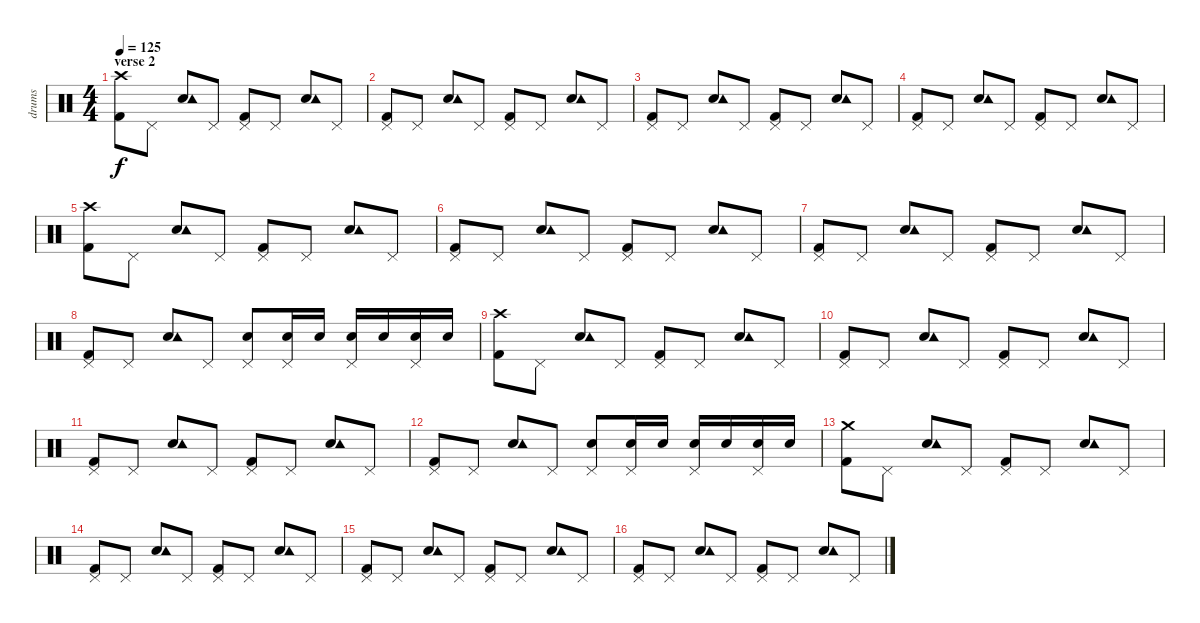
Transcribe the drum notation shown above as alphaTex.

\track ("drums" "drums") {instrument percussion}
\staff {score}
\articulation defaults
\ts (4 4)
\section ("" "verse 2")
\tempo 125
\clef neutral
\ks c
("Kick (hit) 2" "Crash high (hit)").8{dy f} "Pedal Hi-Hat (hit)".8 ("Electric Snare (hit)" "Tambourine (hit)").8 "Pedal Hi-Hat (hit)".8 ("Kick (hit) 2" "Pedal Hi-Hat (hit)").8 "Pedal Hi-Hat (hit)".8 ("Electric Snare (hit)" "Tambourine (hit)").8 "Pedal Hi-Hat (hit)".8 |
("Kick (hit) 2" "Pedal Hi-Hat (hit)").8 "Pedal Hi-Hat (hit)".8 ("Electric Snare (hit)" "Tambourine (hit)").8 "Pedal Hi-Hat (hit)".8 ("Kick (hit) 2" "Pedal Hi-Hat (hit)").8 "Pedal Hi-Hat (hit)".8 ("Electric Snare (hit)" "Tambourine (hit)").8 "Pedal Hi-Hat (hit)".8 |
("Kick (hit) 2" "Pedal Hi-Hat (hit)").8 "Pedal Hi-Hat (hit)".8 ("Electric Snare (hit)" "Tambourine (hit)").8 "Pedal Hi-Hat (hit)".8 ("Kick (hit) 2" "Pedal Hi-Hat (hit)").8 "Pedal Hi-Hat (hit)".8 ("Electric Snare (hit)" "Tambourine (hit)").8 "Pedal Hi-Hat (hit)".8 |
("Kick (hit) 2" "Pedal Hi-Hat (hit)").8 "Pedal Hi-Hat (hit)".8 ("Electric Snare (hit)" "Tambourine (hit)").8 "Pedal Hi-Hat (hit)".8 ("Kick (hit) 2" "Pedal Hi-Hat (hit)").8 "Pedal Hi-Hat (hit)".8 ("Electric Snare (hit)" "Tambourine (hit)").8 "Pedal Hi-Hat (hit)".8 |
("Kick (hit) 2" "Crash high (hit)").8 "Pedal Hi-Hat (hit)".8 ("Electric Snare (hit)" "Tambourine (hit)").8 "Pedal Hi-Hat (hit)".8 ("Kick (hit) 2" "Pedal Hi-Hat (hit)").8 "Pedal Hi-Hat (hit)".8 ("Electric Snare (hit)" "Tambourine (hit)").8 "Pedal Hi-Hat (hit)".8 |
("Kick (hit) 2" "Pedal Hi-Hat (hit)").8 "Pedal Hi-Hat (hit)".8 ("Electric Snare (hit)" "Tambourine (hit)").8 "Pedal Hi-Hat (hit)".8 ("Kick (hit) 2" "Pedal Hi-Hat (hit)").8 "Pedal Hi-Hat (hit)".8 ("Electric Snare (hit)" "Tambourine (hit)").8 "Pedal Hi-Hat (hit)".8 |
("Kick (hit) 2" "Pedal Hi-Hat (hit)").8 "Pedal Hi-Hat (hit)".8 ("Electric Snare (hit)" "Tambourine (hit)").8 "Pedal Hi-Hat (hit)".8 ("Kick (hit) 2" "Pedal Hi-Hat (hit)").8 "Pedal Hi-Hat (hit)".8 ("Electric Snare (hit)" "Tambourine (hit)").8 "Pedal Hi-Hat (hit)".8 |
("Kick (hit) 2" "Pedal Hi-Hat (hit)").8 "Pedal Hi-Hat (hit)".8 ("Electric Snare (hit)" "Tambourine (hit)").8 "Pedal Hi-Hat (hit)".8 ("Electric Snare (hit)" "Pedal Hi-Hat (hit)").8 ("Electric Snare (hit)" "Pedal Hi-Hat (hit)").16 "Electric Snare (hit)".16 ("Electric Snare (hit)" "Pedal Hi-Hat (hit)").16 "Electric Snare (hit)".16 ("Electric Snare (hit)" "Pedal Hi-Hat (hit)").16 "Electric Snare (hit)".16 |
("Kick (hit) 2" "Crash high (hit)").8 "Pedal Hi-Hat (hit)".8 ("Electric Snare (hit)" "Tambourine (hit)").8 "Pedal Hi-Hat (hit)".8 ("Kick (hit) 2" "Pedal Hi-Hat (hit)").8 "Pedal Hi-Hat (hit)".8 ("Electric Snare (hit)" "Tambourine (hit)").8 "Pedal Hi-Hat (hit)".8 |
("Kick (hit) 2" "Pedal Hi-Hat (hit)").8 "Pedal Hi-Hat (hit)".8 ("Electric Snare (hit)" "Tambourine (hit)").8 "Pedal Hi-Hat (hit)".8 ("Kick (hit) 2" "Pedal Hi-Hat (hit)").8 "Pedal Hi-Hat (hit)".8 ("Electric Snare (hit)" "Tambourine (hit)").8 "Pedal Hi-Hat (hit)".8 |
("Kick (hit) 2" "Pedal Hi-Hat (hit)").8 "Pedal Hi-Hat (hit)".8 ("Electric Snare (hit)" "Tambourine (hit)").8 "Pedal Hi-Hat (hit)".8 ("Kick (hit) 2" "Pedal Hi-Hat (hit)").8 "Pedal Hi-Hat (hit)".8 ("Electric Snare (hit)" "Tambourine (hit)").8 "Pedal Hi-Hat (hit)".8 |
("Kick (hit) 2" "Pedal Hi-Hat (hit)").8 "Pedal Hi-Hat (hit)".8 ("Electric Snare (hit)" "Tambourine (hit)").8 "Pedal Hi-Hat (hit)".8 ("Electric Snare (hit)" "Pedal Hi-Hat (hit)").8 ("Electric Snare (hit)" "Pedal Hi-Hat (hit)").16 "Electric Snare (hit)".16 ("Electric Snare (hit)" "Pedal Hi-Hat (hit)").16 "Electric Snare (hit)".16 ("Electric Snare (hit)" "Pedal Hi-Hat (hit)").16 "Electric Snare (hit)".16 |
("Kick (hit) 2" "Crash medium (hit)").8 "Pedal Hi-Hat (hit)".8 ("Electric Snare (hit)" "Tambourine (hit)").8 "Pedal Hi-Hat (hit)".8 ("Kick (hit) 2" "Pedal Hi-Hat (hit)").8 "Pedal Hi-Hat (hit)".8 ("Electric Snare (hit)" "Tambourine (hit)").8 "Pedal Hi-Hat (hit)".8 |
("Kick (hit) 2" "Pedal Hi-Hat (hit)").8 "Pedal Hi-Hat (hit)".8 ("Electric Snare (hit)" "Tambourine (hit)").8 "Pedal Hi-Hat (hit)".8 ("Kick (hit) 2" "Pedal Hi-Hat (hit)").8 "Pedal Hi-Hat (hit)".8 ("Electric Snare (hit)" "Tambourine (hit)").8 "Pedal Hi-Hat (hit)".8 |
("Kick (hit) 2" "Pedal Hi-Hat (hit)").8 "Pedal Hi-Hat (hit)".8 ("Electric Snare (hit)" "Tambourine (hit)").8 "Pedal Hi-Hat (hit)".8 ("Kick (hit) 2" "Pedal Hi-Hat (hit)").8 "Pedal Hi-Hat (hit)".8 ("Electric Snare (hit)" "Tambourine (hit)").8 "Pedal Hi-Hat (hit)".8 |
("Kick (hit) 2" "Pedal Hi-Hat (hit)").8 "Pedal Hi-Hat (hit)".8 ("Electric Snare (hit)" "Tambourine (hit)").8 "Pedal Hi-Hat (hit)".8 ("Kick (hit) 2" "Pedal Hi-Hat (hit)").8 "Pedal Hi-Hat (hit)".8 ("Electric Snare (hit)" "Tambourine (hit)").8 "Pedal Hi-Hat (hit)".8
